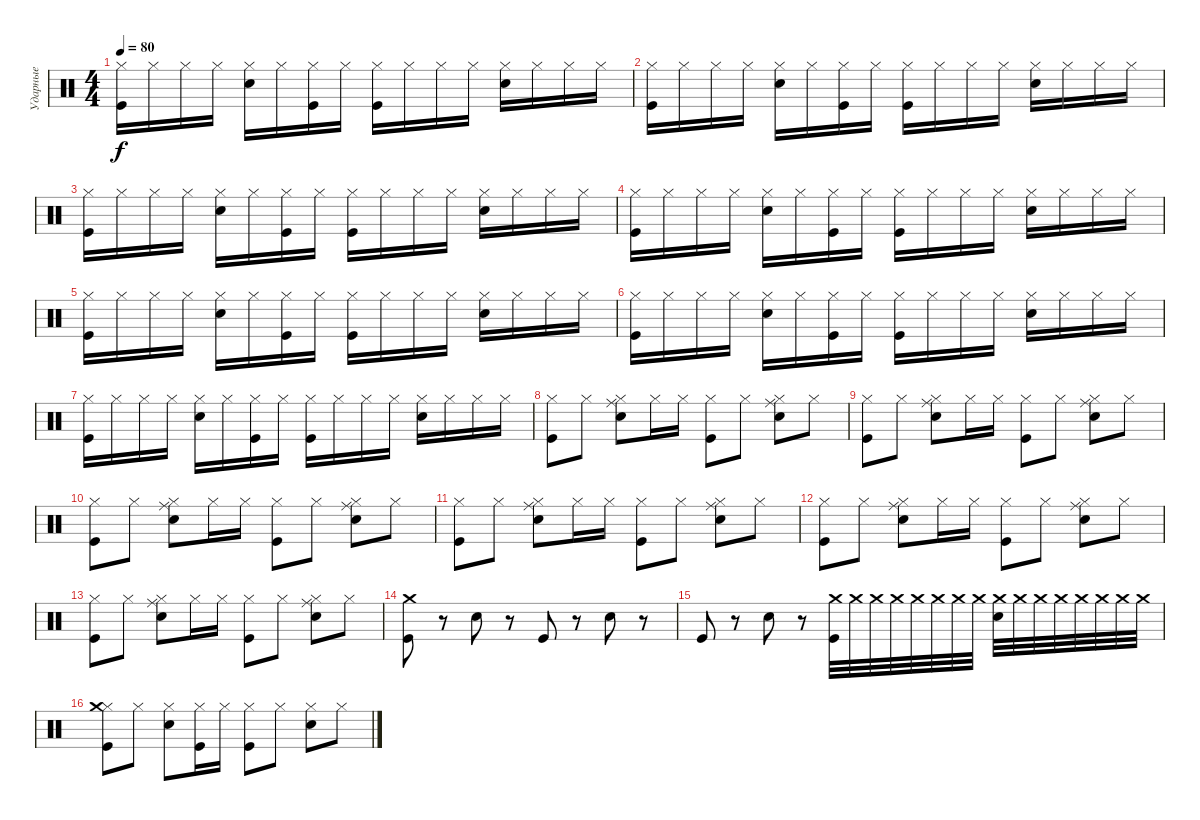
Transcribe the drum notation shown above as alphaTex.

\track ("Ударные" "Ударные") {instrument percussion}
\staff {score}
\articulation defaults
\ts (4 4)
\tempo 80
\clef neutral
\ks c
("Kick (hit)" "Hi-Hat (closed)").16{dy f} "Hi-Hat (closed)".16 "Hi-Hat (closed)".16 "Hi-Hat (closed)".16 ("Snare (hit) 2" "Hi-Hat (closed)").16 "Hi-Hat (closed)".16 ("Kick (hit)" "Hi-Hat (closed)").16 "Hi-Hat (closed)".16 ("Kick (hit)" "Hi-Hat (closed)").16 "Hi-Hat (closed)".16 "Hi-Hat (closed)".16 "Hi-Hat (closed)".16 ("Snare (hit) 2" "Hi-Hat (closed)").16 "Hi-Hat (closed)".16 "Hi-Hat (closed)".16 "Hi-Hat (closed)".16 |
("Kick (hit)" "Hi-Hat (closed)").16 "Hi-Hat (closed)".16 "Hi-Hat (closed)".16 "Hi-Hat (closed)".16 ("Snare (hit) 2" "Hi-Hat (closed)").16 "Hi-Hat (closed)".16 ("Kick (hit)" "Hi-Hat (closed)").16 "Hi-Hat (closed)".16 ("Kick (hit)" "Hi-Hat (closed)").16 "Hi-Hat (closed)".16 "Hi-Hat (closed)".16 "Hi-Hat (closed)".16 ("Snare (hit) 2" "Hi-Hat (closed)").16 "Hi-Hat (closed)".16 "Hi-Hat (closed)".16 "Hi-Hat (closed)".16 |
("Kick (hit)" "Hi-Hat (closed)").16 "Hi-Hat (closed)".16 "Hi-Hat (closed)".16 "Hi-Hat (closed)".16 ("Snare (hit) 2" "Hi-Hat (closed)").16 "Hi-Hat (closed)".16 ("Kick (hit)" "Hi-Hat (closed)").16 "Hi-Hat (closed)".16 ("Kick (hit)" "Hi-Hat (closed)").16 "Hi-Hat (closed)".16 "Hi-Hat (closed)".16 "Hi-Hat (closed)".16 ("Snare (hit) 2" "Hi-Hat (closed)").16 "Hi-Hat (closed)".16 "Hi-Hat (closed)".16 "Hi-Hat (closed)".16 |
("Kick (hit)" "Hi-Hat (closed)").16 "Hi-Hat (closed)".16 "Hi-Hat (closed)".16 "Hi-Hat (closed)".16 ("Snare (hit) 2" "Hi-Hat (closed)").16 "Hi-Hat (closed)".16 ("Kick (hit)" "Hi-Hat (closed)").16 "Hi-Hat (closed)".16 ("Kick (hit)" "Hi-Hat (closed)").16 "Hi-Hat (closed)".16 "Hi-Hat (closed)".16 "Hi-Hat (closed)".16 ("Snare (hit) 2" "Hi-Hat (closed)").16 "Hi-Hat (closed)".16 "Hi-Hat (closed)".16 "Hi-Hat (closed)".16 |
("Kick (hit)" "Hi-Hat (closed)").16 "Hi-Hat (closed)".16 "Hi-Hat (closed)".16 "Hi-Hat (closed)".16 ("Snare (hit) 2" "Hi-Hat (closed)").16 "Hi-Hat (closed)".16 ("Kick (hit)" "Hi-Hat (closed)").16 "Hi-Hat (closed)".16 ("Kick (hit)" "Hi-Hat (closed)").16 "Hi-Hat (closed)".16 "Hi-Hat (closed)".16 "Hi-Hat (closed)".16 ("Snare (hit) 2" "Hi-Hat (closed)").16 "Hi-Hat (closed)".16 "Hi-Hat (closed)".16 "Hi-Hat (closed)".16 |
("Kick (hit)" "Hi-Hat (closed)").16 "Hi-Hat (closed)".16 "Hi-Hat (closed)".16 "Hi-Hat (closed)".16 ("Snare (hit) 2" "Hi-Hat (closed)").16 "Hi-Hat (closed)".16 ("Kick (hit)" "Hi-Hat (closed)").16 "Hi-Hat (closed)".16 ("Kick (hit)" "Hi-Hat (closed)").16 "Hi-Hat (closed)".16 "Hi-Hat (closed)".16 "Hi-Hat (closed)".16 ("Snare (hit) 2" "Hi-Hat (closed)").16 "Hi-Hat (closed)".16 "Hi-Hat (closed)".16 "Hi-Hat (closed)".16 |
("Kick (hit)" "Hi-Hat (closed)").16 "Hi-Hat (closed)".16 "Hi-Hat (closed)".16 "Hi-Hat (closed)".16 ("Snare (hit) 2" "Hi-Hat (closed)").16 "Hi-Hat (closed)".16 ("Kick (hit)" "Hi-Hat (closed)").16 "Hi-Hat (closed)".16 ("Kick (hit)" "Hi-Hat (closed)").16 "Hi-Hat (closed)".16 "Hi-Hat (closed)".16 "Hi-Hat (closed)".16 ("Snare (hit) 2" "Hi-Hat (closed)").16 "Hi-Hat (closed)".16 "Hi-Hat (closed)".16 "Hi-Hat (closed)".16 |
("Kick (hit)" "Hi-Hat (closed)").8 "Hi-Hat (closed)".8 ("Snare (hit) 2" "Hi-Hat (closed)" "Ride (middle)").8 "Hi-Hat (closed)".16 "Hi-Hat (closed)".16 ("Kick (hit)" "Hi-Hat (closed)").8 "Hi-Hat (closed)".8 ("Snare (hit) 2" "Hi-Hat (closed)" "Ride (middle)").8 "Hi-Hat (closed)".8 |
("Kick (hit)" "Hi-Hat (closed)").8 "Hi-Hat (closed)".8 ("Snare (hit) 2" "Hi-Hat (closed)" "Ride (middle)").8 "Hi-Hat (closed)".16 "Hi-Hat (closed)".16 ("Kick (hit)" "Hi-Hat (closed)").8 "Hi-Hat (closed)".8 ("Snare (hit) 2" "Hi-Hat (closed)" "Ride (middle)").8 "Hi-Hat (closed)".8 |
("Kick (hit)" "Hi-Hat (closed)").8 "Hi-Hat (closed)".8 ("Snare (hit) 2" "Hi-Hat (closed)" "Ride (middle)").8 "Hi-Hat (closed)".16 "Hi-Hat (closed)".16 ("Kick (hit)" "Hi-Hat (closed)").8 "Hi-Hat (closed)".8 ("Snare (hit) 2" "Hi-Hat (closed)" "Ride (middle)").8 "Hi-Hat (closed)".8 |
("Kick (hit)" "Hi-Hat (closed)").8 "Hi-Hat (closed)".8 ("Snare (hit) 2" "Hi-Hat (closed)" "Ride (middle)").8 "Hi-Hat (closed)".16 "Hi-Hat (closed)".16 ("Kick (hit)" "Hi-Hat (closed)").8 "Hi-Hat (closed)".8 ("Snare (hit) 2" "Hi-Hat (closed)" "Ride (middle)").8 "Hi-Hat (closed)".8 |
("Kick (hit)" "Hi-Hat (closed)").8 "Hi-Hat (closed)".8 ("Snare (hit) 2" "Hi-Hat (closed)" "Ride (middle)").8 "Hi-Hat (closed)".16 "Hi-Hat (closed)".16 ("Kick (hit)" "Hi-Hat (closed)").8 "Hi-Hat (closed)".8 ("Snare (hit) 2" "Hi-Hat (closed)" "Ride (middle)").8 "Hi-Hat (closed)".8 |
("Kick (hit)" "Hi-Hat (closed)").8 "Hi-Hat (closed)".8 ("Snare (hit) 2" "Hi-Hat (closed)" "Ride (middle)").8 "Hi-Hat (closed)".16 "Hi-Hat (closed)".16 ("Kick (hit)" "Hi-Hat (closed)").8 "Hi-Hat (closed)".8 ("Snare (hit) 2" "Hi-Hat (closed)" "Ride (middle)").8 "Hi-Hat (closed)".8 |
("Kick (hit)" "Crash medium (hit)").8 r.8 "Snare (hit) 2".8{volume 5} r.8 "Kick (hit)".8 r.8 "Snare (hit) 2".8 r.8 |
"Kick (hit)".8 r.8 "Snare (hit) 2".8 r.8 ("Kick (hit)" "Crash medium (hit)").32{volume 13} "Crash medium (hit)".32 "Crash medium (hit)".32 "Crash medium (hit)".32 "Crash medium (hit)".32 "Crash medium (hit)".32 "Crash medium (hit)".32 "Crash medium (hit)".32 ("Snare (hit) 2" "Crash medium (hit)").32 "Crash medium (hit)".32 "Crash medium (hit)".32 "Crash medium (hit)".32 "Crash medium (hit)".32 "Crash medium (hit)".32 "Crash medium (hit)".32 "Crash medium (hit)".32 |
("Kick (hit)" "Hi-Hat (closed)" "Crash medium (hit)").8 "Hi-Hat (closed)".8 ("Snare (hit) 2" "Hi-Hat (closed)").8 ("Kick (hit)" "Hi-Hat (closed)").16 "Hi-Hat (closed)".16 ("Kick (hit)" "Hi-Hat (closed)").8 "Hi-Hat (closed)".8 ("Snare (hit) 2" "Hi-Hat (closed)").8 "Hi-Hat (closed)".8
